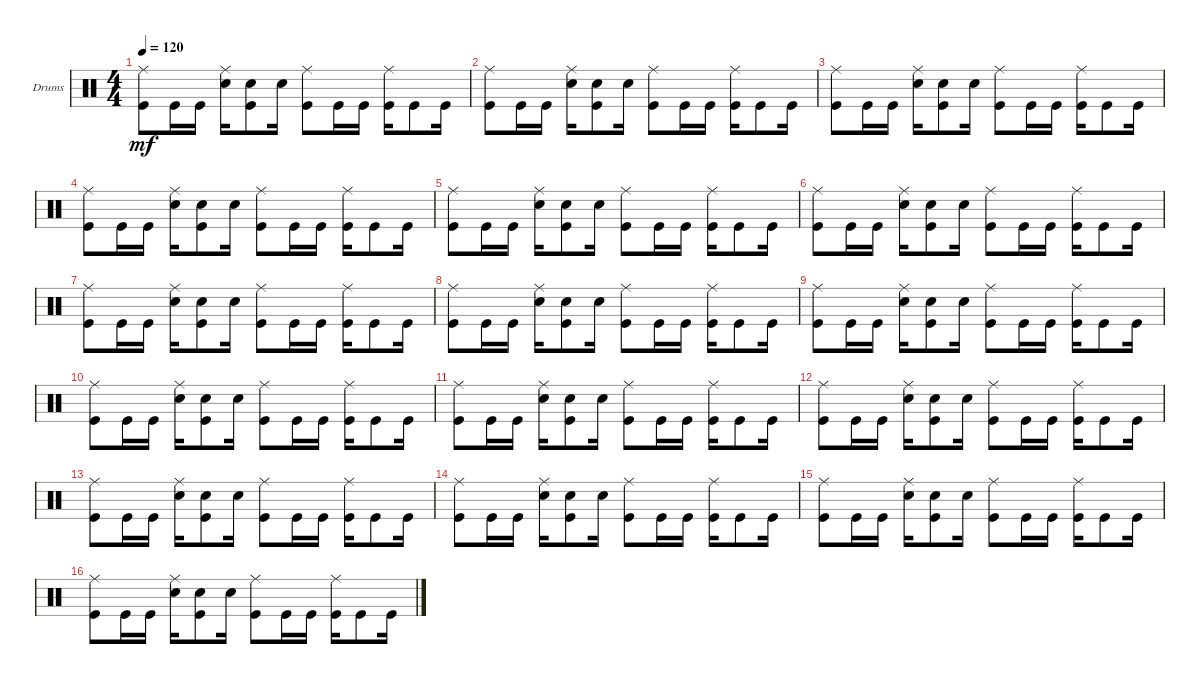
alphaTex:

\defaultSystemsLayout 4
\bracketExtendMode groupsimilarinstruments
\firstSystemTrackNameOrientation horizontal
\otherSystemsTrackNameOrientation horizontal
\track ("Drums" "Drums") {instrument percussion}
\staff {score}
\articulation defaults
\ts (4 4)
\tempo 120
\clef neutral
\scale
0.474178
\ks c
("Ride (middle)" "Kick (hit)").8{dy mf} "Kick (hit)".16 "Kick (hit)".16 ("Ride (middle)" "Snare (hit) 2").16 ("Kick (hit)" "Snare (hit) 2").8 "Snare (hit) 2".16 ("Ride (middle)" "Kick (hit)").8 "Kick (hit)".16 "Kick (hit)".16 ("Ride (middle)" "Kick (hit)").16 "Kick (hit)".8 "Kick (hit)".16 |
\scale
0.262911 ("Ride (middle)" "Kick (hit)").8 "Kick (hit)".16 "Kick (hit)".16 ("Ride (middle)" "Snare (hit) 2").16 ("Kick (hit)" "Snare (hit) 2").8 "Snare (hit) 2".16 ("Ride (middle)" "Kick (hit)").8 "Kick (hit)".16 "Kick (hit)".16 ("Ride (middle)" "Kick (hit)").16 "Kick (hit)".8 "Kick (hit)".16 |
\scale
0.262911 ("Ride (middle)" "Kick (hit)").8 "Kick (hit)".16 "Kick (hit)".16 ("Ride (middle)" "Snare (hit) 2").16 ("Kick (hit)" "Snare (hit) 2").8 "Snare (hit) 2".16 ("Ride (middle)" "Kick (hit)").8 "Kick (hit)".16 "Kick (hit)".16 ("Ride (middle)" "Kick (hit)").16 "Kick (hit)".8 "Kick (hit)".16 |
\scale
0.333333 ("Ride (middle)" "Kick (hit)").8 "Kick (hit)".16 "Kick (hit)".16 ("Ride (middle)" "Snare (hit) 2").16 ("Kick (hit)" "Snare (hit) 2").8 "Snare (hit) 2".16 ("Ride (middle)" "Kick (hit)").8 "Kick (hit)".16 "Kick (hit)".16 ("Ride (middle)" "Kick (hit)").16 "Kick (hit)".8 "Kick (hit)".16 |
\scale
0.333333 ("Ride (middle)" "Kick (hit)").8 "Kick (hit)".16 "Kick (hit)".16 ("Ride (middle)" "Snare (hit) 2").16 ("Kick (hit)" "Snare (hit) 2").8 "Snare (hit) 2".16 ("Ride (middle)" "Kick (hit)").8 "Kick (hit)".16 "Kick (hit)".16 ("Ride (middle)" "Kick (hit)").16 "Kick (hit)".8 "Kick (hit)".16 |
\scale
0.333333 ("Ride (middle)" "Kick (hit)").8 "Kick (hit)".16 "Kick (hit)".16 ("Ride (middle)" "Snare (hit) 2").16 ("Kick (hit)" "Snare (hit) 2").8 "Snare (hit) 2".16 ("Ride (middle)" "Kick (hit)").8 "Kick (hit)".16 "Kick (hit)".16 ("Ride (middle)" "Kick (hit)").16 "Kick (hit)".8 "Kick (hit)".16 |
\scale
0.333333 ("Ride (middle)" "Kick (hit)").8 "Kick (hit)".16 "Kick (hit)".16 ("Ride (middle)" "Snare (hit) 2").16 ("Kick (hit)" "Snare (hit) 2").8 "Snare (hit) 2".16 ("Ride (middle)" "Kick (hit)").8 "Kick (hit)".16 "Kick (hit)".16 ("Ride (middle)" "Kick (hit)").16 "Kick (hit)".8 "Kick (hit)".16 |
\scale
0.333333 ("Ride (middle)" "Kick (hit)").8 "Kick (hit)".16 "Kick (hit)".16 ("Ride (middle)" "Snare (hit) 2").16 ("Kick (hit)" "Snare (hit) 2").8 "Snare (hit) 2".16 ("Ride (middle)" "Kick (hit)").8 "Kick (hit)".16 "Kick (hit)".16 ("Ride (middle)" "Kick (hit)").16 "Kick (hit)".8 "Kick (hit)".16 |
\scale
0.333333 ("Ride (middle)" "Kick (hit)").8 "Kick (hit)".16 "Kick (hit)".16 ("Ride (middle)" "Snare (hit) 2").16 ("Kick (hit)" "Snare (hit) 2").8 "Snare (hit) 2".16 ("Ride (middle)" "Kick (hit)").8 "Kick (hit)".16 "Kick (hit)".16 ("Ride (middle)" "Kick (hit)").16 "Kick (hit)".8 "Kick (hit)".16 |
\scale
0.333333 ("Ride (middle)" "Kick (hit)").8 "Kick (hit)".16 "Kick (hit)".16 ("Ride (middle)" "Snare (hit) 2").16 ("Kick (hit)" "Snare (hit) 2").8 "Snare (hit) 2".16 ("Ride (middle)" "Kick (hit)").8 "Kick (hit)".16 "Kick (hit)".16 ("Ride (middle)" "Kick (hit)").16 "Kick (hit)".8 "Kick (hit)".16 |
\scale
0.333333 ("Ride (middle)" "Kick (hit)").8 "Kick (hit)".16 "Kick (hit)".16 ("Ride (middle)" "Snare (hit) 2").16 ("Kick (hit)" "Snare (hit) 2").8 "Snare (hit) 2".16 ("Ride (middle)" "Kick (hit)").8 "Kick (hit)".16 "Kick (hit)".16 ("Ride (middle)" "Kick (hit)").16 "Kick (hit)".8 "Kick (hit)".16 |
\scale
0.333333 ("Ride (middle)" "Kick (hit)").8 "Kick (hit)".16 "Kick (hit)".16 ("Ride (middle)" "Snare (hit) 2").16 ("Kick (hit)" "Snare (hit) 2").8 "Snare (hit) 2".16 ("Ride (middle)" "Kick (hit)").8 "Kick (hit)".16 "Kick (hit)".16 ("Ride (middle)" "Kick (hit)").16 "Kick (hit)".8 "Kick (hit)".16 |
\scale
0.333333 ("Ride (middle)" "Kick (hit)").8 "Kick (hit)".16 "Kick (hit)".16 ("Ride (middle)" "Snare (hit) 2").16 ("Kick (hit)" "Snare (hit) 2").8 "Snare (hit) 2".16 ("Ride (middle)" "Kick (hit)").8 "Kick (hit)".16 "Kick (hit)".16 ("Ride (middle)" "Kick (hit)").16 "Kick (hit)".8 "Kick (hit)".16 |
\scale
0.333333 ("Ride (middle)" "Kick (hit)").8 "Kick (hit)".16 "Kick (hit)".16 ("Ride (middle)" "Snare (hit) 2").16 ("Kick (hit)" "Snare (hit) 2").8 "Snare (hit) 2".16 ("Ride (middle)" "Kick (hit)").8 "Kick (hit)".16 "Kick (hit)".16 ("Ride (middle)" "Kick (hit)").16 "Kick (hit)".8 "Kick (hit)".16 |
\scale
0.333333 ("Ride (middle)" "Kick (hit)").8 "Kick (hit)".16 "Kick (hit)".16 ("Ride (middle)" "Snare (hit) 2").16 ("Kick (hit)" "Snare (hit) 2").8 "Snare (hit) 2".16 ("Ride (middle)" "Kick (hit)").8 "Kick (hit)".16 "Kick (hit)".16 ("Ride (middle)" "Kick (hit)").16 "Kick (hit)".8 "Kick (hit)".16 |
\scale
0.333333 ("Ride (middle)" "Kick (hit)").8 "Kick (hit)".16 "Kick (hit)".16 ("Ride (middle)" "Snare (hit) 2").16 ("Kick (hit)" "Snare (hit) 2").8 "Snare (hit) 2".16 ("Ride (middle)" "Kick (hit)").8 "Kick (hit)".16 "Kick (hit)".16 ("Ride (middle)" "Kick (hit)").16 "Kick (hit)".8 "Kick (hit)".16
